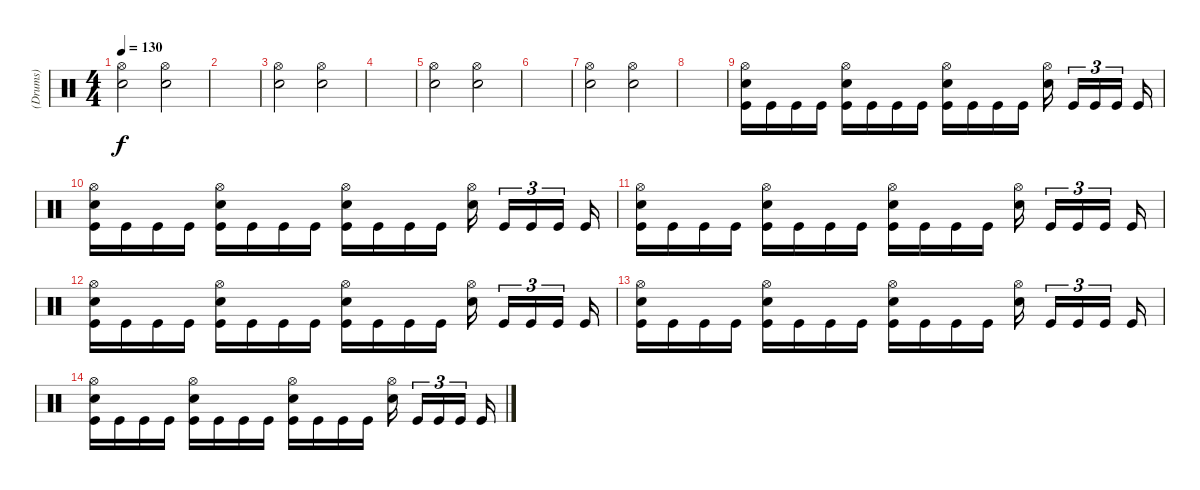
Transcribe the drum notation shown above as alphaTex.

\track ("(Drums)" "(Drums)") {instrument percussion}
\staff {score}
\articulation defaults
\ts (4 4)
\tempo 130
\clef neutral
\ks c
("Hi-Hat (open)" "Snare (hit) 2").2{dy f} ("Hi-Hat (open)" "Snare (hit) 2").2 |
|
("Hi-Hat (open)" "Snare (hit) 2").2 ("Hi-Hat (open)" "Snare (hit) 2").2 |
|
("Hi-Hat (open)" "Snare (hit) 2").2 ("Hi-Hat (open)" "Snare (hit) 2").2 |
|
("Hi-Hat (open)" "Snare (hit) 2").2 ("Hi-Hat (open)" "Snare (hit) 2").2 |
|
("Hi-Hat (open)" "Snare (hit) 2" "Kick (hit)").16 "Kick (hit)".16 "Kick (hit)".16 "Kick (hit)".16 ("Hi-Hat (open)" "Snare (hit) 2" "Kick (hit)").16 "Kick (hit)".16 "Kick (hit)".16 "Kick (hit)".16 ("Hi-Hat (open)" "Snare (hit) 2" "Kick (hit)").16 "Kick (hit)".16 "Kick (hit)".16 "Kick (hit)".16 ("Hi-Hat (open)" "Snare (hit) 2").16{beam splitsecondary} "Kick (hit)".16{tu (3 2)} "Kick (hit)".16{tu (3 2)} "Kick (hit)".16{tu (3 2) beam splitsecondary} "Kick (hit)".16 |
("Hi-Hat (open)" "Snare (hit) 2" "Kick (hit)").16 "Kick (hit)".16 "Kick (hit)".16 "Kick (hit)".16 ("Hi-Hat (open)" "Snare (hit) 2" "Kick (hit)").16 "Kick (hit)".16 "Kick (hit)".16 "Kick (hit)".16 ("Hi-Hat (open)" "Snare (hit) 2" "Kick (hit)").16 "Kick (hit)".16 "Kick (hit)".16 "Kick (hit)".16 ("Hi-Hat (open)" "Snare (hit) 2").16{beam splitsecondary} "Kick (hit)".16{tu (3 2)} "Kick (hit)".16{tu (3 2)} "Kick (hit)".16{tu (3 2) beam splitsecondary} "Kick (hit)".16 |
("Hi-Hat (open)" "Snare (hit) 2" "Kick (hit)").16 "Kick (hit)".16 "Kick (hit)".16 "Kick (hit)".16 ("Hi-Hat (open)" "Snare (hit) 2" "Kick (hit)").16 "Kick (hit)".16 "Kick (hit)".16 "Kick (hit)".16 ("Hi-Hat (open)" "Snare (hit) 2" "Kick (hit)").16 "Kick (hit)".16 "Kick (hit)".16 "Kick (hit)".16 ("Hi-Hat (open)" "Snare (hit) 2").16{beam splitsecondary} "Kick (hit)".16{tu (3 2)} "Kick (hit)".16{tu (3 2)} "Kick (hit)".16{tu (3 2) beam splitsecondary} "Kick (hit)".16 |
("Hi-Hat (open)" "Snare (hit) 2" "Kick (hit)").16 "Kick (hit)".16 "Kick (hit)".16 "Kick (hit)".16 ("Hi-Hat (open)" "Snare (hit) 2" "Kick (hit)").16 "Kick (hit)".16 "Kick (hit)".16 "Kick (hit)".16 ("Hi-Hat (open)" "Snare (hit) 2" "Kick (hit)").16 "Kick (hit)".16 "Kick (hit)".16 "Kick (hit)".16 ("Hi-Hat (open)" "Snare (hit) 2").16{beam splitsecondary} "Kick (hit)".16{tu (3 2)} "Kick (hit)".16{tu (3 2)} "Kick (hit)".16{tu (3 2) beam splitsecondary} "Kick (hit)".16 |
("Hi-Hat (open)" "Snare (hit) 2" "Kick (hit)").16 "Kick (hit)".16 "Kick (hit)".16 "Kick (hit)".16 ("Hi-Hat (open)" "Snare (hit) 2" "Kick (hit)").16 "Kick (hit)".16 "Kick (hit)".16 "Kick (hit)".16 ("Hi-Hat (open)" "Snare (hit) 2" "Kick (hit)").16 "Kick (hit)".16 "Kick (hit)".16 "Kick (hit)".16 ("Hi-Hat (open)" "Snare (hit) 2").16{beam splitsecondary} "Kick (hit)".16{tu (3 2)} "Kick (hit)".16{tu (3 2)} "Kick (hit)".16{tu (3 2) beam splitsecondary} "Kick (hit)".16 |
("Hi-Hat (open)" "Snare (hit) 2" "Kick (hit)").16 "Kick (hit)".16 "Kick (hit)".16 "Kick (hit)".16 ("Hi-Hat (open)" "Snare (hit) 2" "Kick (hit)").16 "Kick (hit)".16 "Kick (hit)".16 "Kick (hit)".16 ("Hi-Hat (open)" "Snare (hit) 2" "Kick (hit)").16 "Kick (hit)".16 "Kick (hit)".16 "Kick (hit)".16 ("Hi-Hat (open)" "Snare (hit) 2").16{beam splitsecondary} "Kick (hit)".16{tu (3 2)} "Kick (hit)".16{tu (3 2)} "Kick (hit)".16{tu (3 2) beam splitsecondary} "Kick (hit)".16
